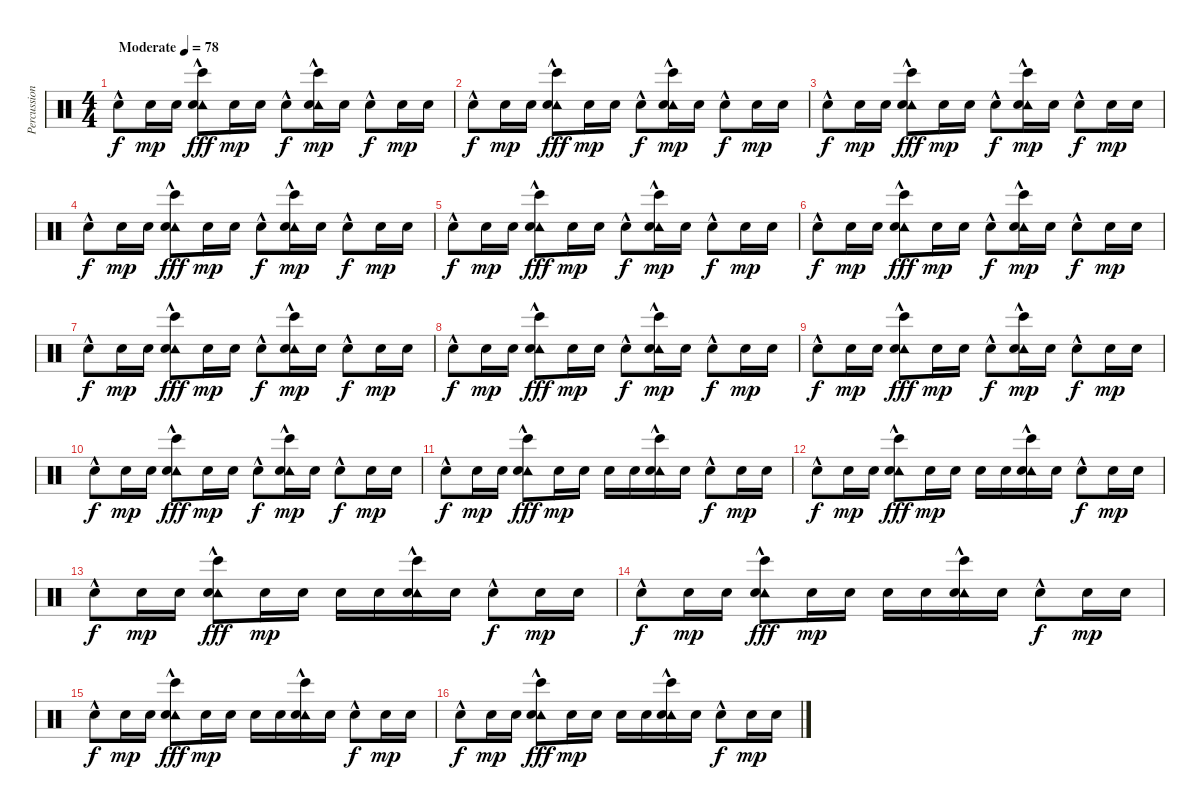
\track ("Percussion" "Percussion") {instrument percussion}
\staff {score}
\articulation defaults
\ts (4 4)
\tempo (78 "Moderate")
\clef neutral
\ks c "Snare (hit) 2"{hac}.8{dy f} "Snare (hit) 2".16{dy mp} "Snare (hit) 2".16
("Bongo High (hit)"{hac} "Tambourine (hit)"{hac} "Snare (hit) 2"{hac}).8{dy fff} "Snare (hit) 2".16{dy mp} "Snare (hit) 2".16 "Snare (hit) 2"{hac}.8{dy f} ("Bongo High (hit)"{hac} "Tambourine (hit)"{hac} "Snare (hit) 2").16{dy mp} "Snare (hit) 2".16 "Snare (hit) 2"{hac}.8{dy f} "Snare (hit) 2".16{dy mp} "Snare (hit) 2".16 |
"Snare (hit) 2"{hac}.8{dy f} "Snare (hit) 2".16{dy mp} "Snare (hit) 2".16 ("Bongo High (hit)"{hac} "Tambourine (hit)"{hac} "Snare (hit) 2"{hac}).8{dy fff} "Snare (hit) 2".16{dy mp} "Snare (hit) 2".16 "Snare (hit) 2"{hac}.8{dy f} ("Bongo High (hit)"{hac} "Tambourine (hit)"{hac} "Snare (hit) 2").16{dy mp} "Snare (hit) 2".16 "Snare (hit) 2"{hac}.8{dy f} "Snare (hit) 2".16{dy mp} "Snare (hit) 2".16 |
"Snare (hit) 2"{hac}.8{dy f} "Snare (hit) 2".16{dy mp} "Snare (hit) 2".16 ("Bongo High (hit)"{hac} "Tambourine (hit)"{hac} "Snare (hit) 2"{hac}).8{dy fff} "Snare (hit) 2".16{dy mp} "Snare (hit) 2".16 "Snare (hit) 2"{hac}.8{dy f} ("Bongo High (hit)"{hac} "Tambourine (hit)"{hac} "Snare (hit) 2").16{dy mp} "Snare (hit) 2".16 "Snare (hit) 2"{hac}.8{dy f} "Snare (hit) 2".16{dy mp} "Snare (hit) 2".16 |
"Snare (hit) 2"{hac}.8{dy f} "Snare (hit) 2".16{dy mp} "Snare (hit) 2".16 ("Bongo High (hit)"{hac} "Tambourine (hit)"{hac} "Snare (hit) 2"{hac}).8{dy fff} "Snare (hit) 2".16{dy mp} "Snare (hit) 2".16 "Snare (hit) 2"{hac}.8{dy f} ("Bongo High (hit)"{hac} "Tambourine (hit)"{hac} "Snare (hit) 2").16{dy mp} "Snare (hit) 2".16 "Snare (hit) 2"{hac}.8{dy f} "Snare (hit) 2".16{dy mp} "Snare (hit) 2".16 |
"Snare (hit) 2"{hac}.8{dy f} "Snare (hit) 2".16{dy mp} "Snare (hit) 2".16 ("Bongo High (hit)"{hac} "Tambourine (hit)"{hac} "Snare (hit) 2"{hac}).8{dy fff} "Snare (hit) 2".16{dy mp} "Snare (hit) 2".16 "Snare (hit) 2"{hac}.8{dy f} ("Bongo High (hit)"{hac} "Tambourine (hit)"{hac} "Snare (hit) 2").16{dy mp} "Snare (hit) 2".16 "Snare (hit) 2"{hac}.8{dy f} "Snare (hit) 2".16{dy mp} "Snare (hit) 2".16 |
"Snare (hit) 2"{hac}.8{dy f} "Snare (hit) 2".16{dy mp} "Snare (hit) 2".16 ("Bongo High (hit)"{hac} "Tambourine (hit)"{hac} "Snare (hit) 2"{hac}).8{dy fff} "Snare (hit) 2".16{dy mp} "Snare (hit) 2".16 "Snare (hit) 2"{hac}.8{dy f} ("Bongo High (hit)"{hac} "Tambourine (hit)"{hac} "Snare (hit) 2").16{dy mp} "Snare (hit) 2".16 "Snare (hit) 2"{hac}.8{dy f} "Snare (hit) 2".16{dy mp} "Snare (hit) 2".16 |
"Snare (hit) 2"{hac}.8{dy f} "Snare (hit) 2".16{dy mp} "Snare (hit) 2".16 ("Bongo High (hit)"{hac} "Tambourine (hit)"{hac} "Snare (hit) 2"{hac}).8{dy fff} "Snare (hit) 2".16{dy mp} "Snare (hit) 2".16 "Snare (hit) 2"{hac}.8{dy f} ("Bongo High (hit)"{hac} "Tambourine (hit)"{hac} "Snare (hit) 2").16{dy mp} "Snare (hit) 2".16 "Snare (hit) 2"{hac}.8{dy f} "Snare (hit) 2".16{dy mp} "Snare (hit) 2".16 |
"Snare (hit) 2"{hac}.8{dy f} "Snare (hit) 2".16{dy mp} "Snare (hit) 2".16 ("Bongo High (hit)"{hac} "Tambourine (hit)"{hac} "Snare (hit) 2"{hac}).8{dy fff} "Snare (hit) 2".16{dy mp} "Snare (hit) 2".16 "Snare (hit) 2"{hac}.8{dy f} ("Bongo High (hit)"{hac} "Tambourine (hit)"{hac} "Snare (hit) 2").16{dy mp} "Snare (hit) 2".16 "Snare (hit) 2"{hac}.8{dy f} "Snare (hit) 2".16{dy mp} "Snare (hit) 2".16 |
"Snare (hit) 2"{hac}.8{dy f} "Snare (hit) 2".16{dy mp} "Snare (hit) 2".16 ("Bongo High (hit)"{hac} "Tambourine (hit)"{hac} "Snare (hit) 2"{hac}).8{dy fff} "Snare (hit) 2".16{dy mp} "Snare (hit) 2".16 "Snare (hit) 2"{hac}.8{dy f} ("Bongo High (hit)"{hac} "Tambourine (hit)"{hac} "Snare (hit) 2").16{dy mp} "Snare (hit) 2".16 "Snare (hit) 2"{hac}.8{dy f} "Snare (hit) 2".16{dy mp} "Snare (hit) 2".16 |
"Snare (hit) 2"{hac}.8{dy f} "Snare (hit) 2".16{dy mp} "Snare (hit) 2".16 ("Bongo High (hit)"{hac} "Tambourine (hit)"{hac} "Snare (hit) 2"{hac}).8{dy fff} "Snare (hit) 2".16{dy mp} "Snare (hit) 2".16 "Snare (hit) 2"{hac}.8{dy f} ("Bongo High (hit)"{hac} "Tambourine (hit)"{hac} "Snare (hit) 2").16{dy mp} "Snare (hit) 2".16 "Snare (hit) 2"{hac}.8{dy f} "Snare (hit) 2".16{dy mp} "Snare (hit) 2".16 |
"Snare (hit) 2"{hac}.8{dy f} "Snare (hit) 2".16{dy mp} "Snare (hit) 2".16 ("Bongo High (hit)"{hac} "Tambourine (hit)"{hac} "Snare (hit) 2"{hac}).8{dy fff} "Snare (hit) 2".16{dy mp} "Snare (hit) 2".16 "Snare (hit) 2".16 "Snare (hit) 2".16 ("Bongo High (hit)"{hac} "Tambourine (hit)"{hac} "Snare (hit) 2").16 "Snare (hit) 2".16 "Snare (hit) 2"{hac}.8{dy f} "Snare (hit) 2".16{dy mp} "Snare (hit) 2".16 |
"Snare (hit) 2"{hac}.8{dy f} "Snare (hit) 2".16{dy mp} "Snare (hit) 2".16 ("Bongo High (hit)"{hac} "Tambourine (hit)"{hac} "Snare (hit) 2"{hac}).8{dy fff} "Snare (hit) 2".16{dy mp} "Snare (hit) 2".16 "Snare (hit) 2".16 "Snare (hit) 2".16 ("Bongo High (hit)"{hac} "Tambourine (hit)"{hac} "Snare (hit) 2").16 "Snare (hit) 2".16 "Snare (hit) 2"{hac}.8{dy f} "Snare (hit) 2".16{dy mp} "Snare (hit) 2".16 |
"Snare (hit) 2"{hac}.8{dy f} "Snare (hit) 2".16{dy mp} "Snare (hit) 2".16 ("Bongo High (hit)"{hac} "Tambourine (hit)"{hac} "Snare (hit) 2"{hac}).8{dy fff} "Snare (hit) 2".16{dy mp} "Snare (hit) 2".16 "Snare (hit) 2".16 "Snare (hit) 2".16 ("Bongo High (hit)"{hac} "Tambourine (hit)"{hac} "Snare (hit) 2").16 "Snare (hit) 2".16 "Snare (hit) 2"{hac}.8{dy f} "Snare (hit) 2".16{dy mp} "Snare (hit) 2".16 |
"Snare (hit) 2"{hac}.8{dy f} "Snare (hit) 2".16{dy mp} "Snare (hit) 2".16 ("Bongo High (hit)"{hac} "Tambourine (hit)"{hac} "Snare (hit) 2"{hac}).8{dy fff} "Snare (hit) 2".16{dy mp} "Snare (hit) 2".16 "Snare (hit) 2".16 "Snare (hit) 2".16 ("Bongo High (hit)"{hac} "Tambourine (hit)"{hac} "Snare (hit) 2").16 "Snare (hit) 2".16 "Snare (hit) 2"{hac}.8{dy f} "Snare (hit) 2".16{dy mp} "Snare (hit) 2".16 |
"Snare (hit) 2"{hac}.8{dy f} "Snare (hit) 2".16{dy mp} "Snare (hit) 2".16 ("Bongo High (hit)"{hac} "Tambourine (hit)"{hac} "Snare (hit) 2"{hac}).8{dy fff} "Snare (hit) 2".16{dy mp} "Snare (hit) 2".16 "Snare (hit) 2".16 "Snare (hit) 2".16 ("Bongo High (hit)"{hac} "Tambourine (hit)"{hac} "Snare (hit) 2").16 "Snare (hit) 2".16 "Snare (hit) 2"{hac}.8{dy f} "Snare (hit) 2".16{dy mp} "Snare (hit) 2".16 |
"Snare (hit) 2"{hac}.8{dy f} "Snare (hit) 2".16{dy mp} "Snare (hit) 2".16 ("Bongo High (hit)"{hac} "Tambourine (hit)"{hac} "Snare (hit) 2"{hac}).8{dy fff} "Snare (hit) 2".16{dy mp} "Snare (hit) 2".16 "Snare (hit) 2".16 "Snare (hit) 2".16 ("Bongo High (hit)"{hac} "Tambourine (hit)"{hac} "Snare (hit) 2").16 "Snare (hit) 2".16 "Snare (hit) 2"{hac}.8{dy f} "Snare (hit) 2".16{dy mp} "Snare (hit) 2".16
